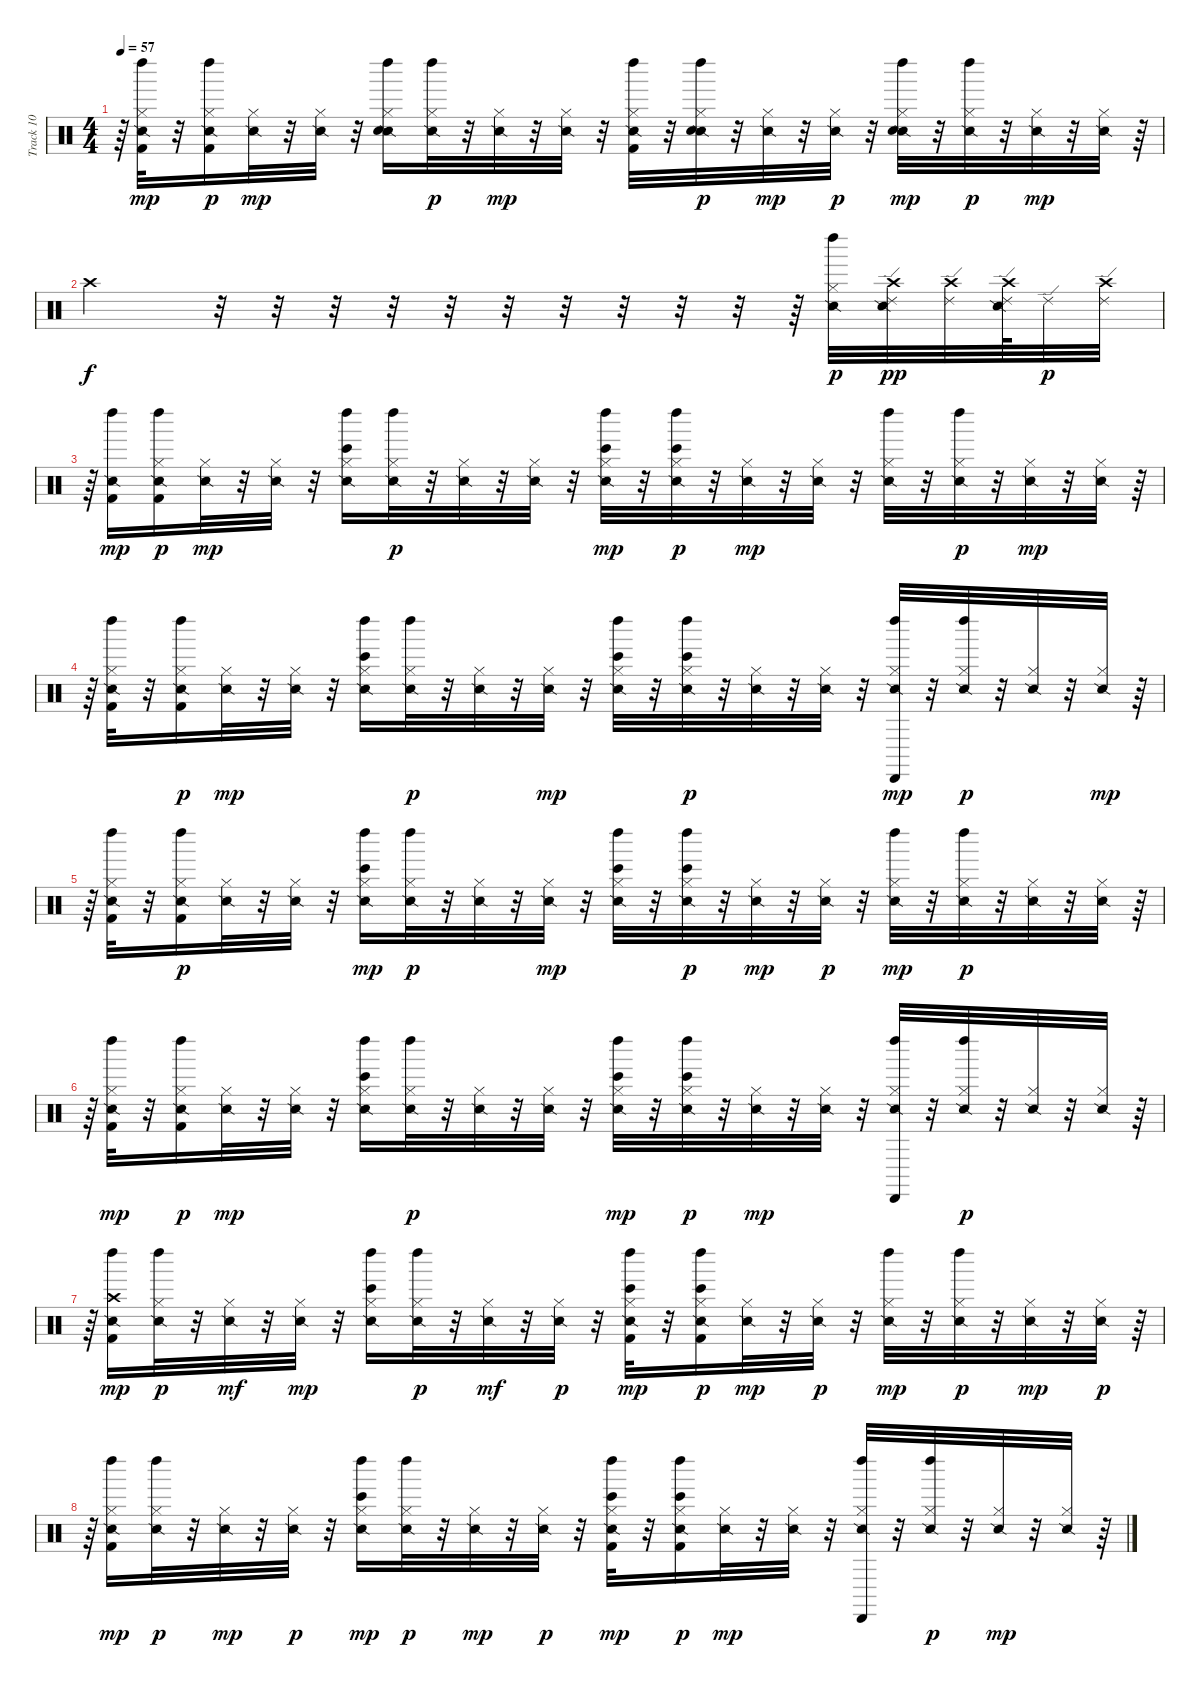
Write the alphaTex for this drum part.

\track ("Track 10" "Track 10") {instrument percussion}
\staff {score}
\articulation defaults
\ts (4 4)
\tempo 57
\clef neutral
\ks c
r.64{dy mp} ("Snare (side stick) 2" "Kick (hit) 2" "Hi-Hat (closed)" "Left Maraca (hit)").32 r.32 ("Snare (side stick) 2" "Kick (hit) 2" "Hi-Hat (closed)" "Left Maraca (hit)").16{dy p} ("Snare (side stick) 2" "Hi-Hat (closed)").32{dy mp} r.32 ("Snare (side stick) 2" "Hi-Hat (closed)").32 r.32 ("Snare (side stick) 2" "Hi-Hat (closed)" "Left Maraca (hit)" "Snare (hit) 2").16 ("Snare (side stick) 2" "Hi-Hat (closed)" "Left Maraca (hit)").32{dy p} r.32 ("Snare (side stick) 2" "Hi-Hat (closed)").32{dy mp} r.32 ("Snare (side stick) 2" "Hi-Hat (closed)").32 r.32 ("Snare (side stick) 2" "Hi-Hat (closed)" "Left Maraca (hit)" "Kick (hit) 2").32 r.32 ("Snare (side stick) 2" "Hi-Hat (closed)" "Left Maraca (hit)" "Snare (hit) 2").32{dy p} r.32 ("Snare (side stick) 2" "Hi-Hat (closed)").32{dy mp} r.32 ("Snare (side stick) 2" "Hi-Hat (closed)").32{dy p} r.32 ("Snare (side stick) 2" "Hi-Hat (closed)" "Left Maraca (hit)" "Snare (hit) 2").32{dy mp} r.32 ("Snare (side stick) 2" "Hi-Hat (closed)" "Left Maraca (hit)").32{dy p} r.32 ("Snare (side stick) 2" "Hi-Hat (closed)").32{dy mp} r.32 ("Snare (side stick) 2" "Hi-Hat (closed)").32 r.64 |
"Crash high (hit)".2{dy f} r.32 r.32 r.32 r.32 r.32 r.32 r.32 r.32 r.32 r.32 r.64 ("Snare (side stick) 2" "Hi-Hat (closed)" "Left Maraca (hit)").32{dy p} ("Ride (edge) 2" "Crash high (hit)" "Snare (side stick) 2").32{dy pp} ("Ride (edge) 2" "Crash high (hit)").32 ("Ride (edge) 2" "Crash high (hit)" "Snare (side stick) 2").64 "Ride (edge) 2".32{dy p} ("Crash high (hit)" "Ride (edge) 2").32 |
r.64 ("Snare (side stick) 2" "Kick (hit) 2" "Left Maraca (hit)").16{dy mp} ("Snare (side stick) 2" "Kick (hit) 2" "Hi-Hat (closed)" "Left Maraca (hit)").16{dy p} ("Snare (side stick) 2" "Hi-Hat (closed)").32{dy mp} r.32 ("Snare (side stick) 2" "Hi-Hat (closed)").32 r.32 ("Bongo High (hit)" "Snare (side stick) 2" "Hi-Hat (closed)" "Left Maraca (hit)").16 ("Snare (side stick) 2" "Hi-Hat (closed)" "Left Maraca (hit)").32{dy p} r.32 ("Snare (side stick) 2" "Hi-Hat (closed)").32 r.32 ("Snare (side stick) 2" "Hi-Hat (closed)").32 r.32 ("Bongo High (hit)" "Snare (side stick) 2" "Hi-Hat (closed)" "Left Maraca (hit)").32{dy mp} r.32 ("Bongo High (hit)" "Snare (side stick) 2" "Hi-Hat (closed)" "Left Maraca (hit)").32{dy p} r.32 ("Snare (side stick) 2" "Hi-Hat (closed)").32{dy mp} r.32 ("Snare (side stick) 2" "Hi-Hat (closed)").32 r.32 ("Snare (side stick) 2" "Hi-Hat (closed)" "Left Maraca (hit)").32 r.32 ("Snare (side stick) 2" "Hi-Hat (closed)" "Left Maraca (hit)").32{dy p} r.32 ("Snare (side stick) 2" "Hi-Hat (closed)").32{dy mp} r.32 ("Snare (side stick) 2" "Hi-Hat (closed)").32 r.64 |
r.64 ("Snare (side stick) 2" "Kick (hit) 2" "Hi-Hat (closed)" "Left Maraca (hit)").32 r.32 ("Snare (side stick) 2" "Kick (hit) 2" "Hi-Hat (closed)" "Left Maraca (hit)").16{dy p} ("Snare (side stick) 2" "Hi-Hat (closed)").32{dy mp} r.32 ("Snare (side stick) 2" "Hi-Hat (closed)").32 r.32 ("Bongo High (hit)" "Snare (side stick) 2" "Hi-Hat (closed)" "Left Maraca (hit)").16 ("Snare (side stick) 2" "Hi-Hat (closed)" "Left Maraca (hit)").32{dy p} r.32 ("Snare (side stick) 2" "Hi-Hat (closed)").32 r.32 ("Snare (side stick) 2" "Hi-Hat (closed)").32{dy mp} r.32 ("Bongo High (hit)" "Snare (side stick) 2" "Hi-Hat (closed)" "Left Maraca (hit)").32 r.32 ("Bongo High (hit)" "Snare (side stick) 2" "Hi-Hat (closed)" "Left Maraca (hit)").32{dy p} r.32 ("Snare (side stick) 2" "Hi-Hat (closed)").32 r.32 ("Snare (side stick) 2" "Hi-Hat (closed)").32 r.32 ("Snare (side stick) 2" "Hi-Hat (closed)" "Left Maraca (hit)" "Cabasa (hit)").32{dy mp} r.32 ("Snare (side stick) 2" "Hi-Hat (closed)" "Left Maraca (hit)").32{dy p} r.32 ("Snare (side stick) 2" "Hi-Hat (closed)").32 r.32 ("Snare (side stick) 2" "Hi-Hat (closed)").32{dy mp} r.64 |
r.64 ("Snare (side stick) 2" "Kick (hit) 2" "Hi-Hat (closed)" "Left Maraca (hit)").32 r.32 ("Snare (side stick) 2" "Kick (hit) 2" "Hi-Hat (closed)" "Left Maraca (hit)").16{dy p} ("Snare (side stick) 2" "Hi-Hat (closed)").32 r.32 ("Snare (side stick) 2" "Hi-Hat (closed)").32 r.32 ("Bongo High (hit)" "Snare (side stick) 2" "Hi-Hat (closed)" "Left Maraca (hit)").16{dy mp} ("Snare (side stick) 2" "Hi-Hat (closed)" "Left Maraca (hit)").32{dy p} r.32 ("Snare (side stick) 2" "Hi-Hat (closed)").32 r.32 ("Snare (side stick) 2" "Hi-Hat (closed)").32{dy mp} r.32 ("Bongo High (hit)" "Snare (side stick) 2" "Hi-Hat (closed)" "Left Maraca (hit)").32 r.32 ("Bongo High (hit)" "Snare (side stick) 2" "Hi-Hat (closed)" "Left Maraca (hit)").32{dy p} r.32 ("Snare (side stick) 2" "Hi-Hat (closed)").32{dy mp} r.32 ("Snare (side stick) 2" "Hi-Hat (closed)").32{dy p} r.32 ("Snare (side stick) 2" "Hi-Hat (closed)" "Left Maraca (hit)").32{dy mp} r.32 ("Snare (side stick) 2" "Hi-Hat (closed)" "Left Maraca (hit)").32{dy p} r.32 ("Snare (side stick) 2" "Hi-Hat (closed)").32 r.32 ("Snare (side stick) 2" "Hi-Hat (closed)").32 r.64 |
r.64 ("Snare (side stick) 2" "Kick (hit) 2" "Hi-Hat (closed)" "Left Maraca (hit)").32{dy mp} r.32 ("Snare (side stick) 2" "Kick (hit) 2" "Hi-Hat (closed)" "Left Maraca (hit)").16{dy p} ("Snare (side stick) 2" "Hi-Hat (closed)").32{dy mp} r.32 ("Snare (side stick) 2" "Hi-Hat (closed)").32 r.32 ("Bongo High (hit)" "Snare (side stick) 2" "Hi-Hat (closed)" "Left Maraca (hit)").16 ("Snare (side stick) 2" "Hi-Hat (closed)" "Left Maraca (hit)").32{dy p} r.32 ("Snare (side stick) 2" "Hi-Hat (closed)").32 r.32 ("Snare (side stick) 2" "Hi-Hat (closed)").32 r.32 ("Bongo High (hit)" "Snare (side stick) 2" "Hi-Hat (closed)" "Left Maraca (hit)").32{dy mp} r.32 ("Bongo High (hit)" "Snare (side stick) 2" "Hi-Hat (closed)" "Left Maraca (hit)").32{dy p} r.32 ("Snare (side stick) 2" "Hi-Hat (closed)").32{dy mp} r.32 ("Snare (side stick) 2" "Hi-Hat (closed)").32 r.32 ("Snare (side stick) 2" "Hi-Hat (closed)" "Left Maraca (hit)" "Cabasa (hit)").32 r.32 ("Snare (side stick) 2" "Hi-Hat (closed)" "Left Maraca (hit)").32{dy p} r.32 ("Snare (side stick) 2" "Hi-Hat (closed)").32 r.32 ("Snare (side stick) 2" "Hi-Hat (closed)").32 r.64 |
r.64 ("Snare (side stick) 2" "Kick (hit) 2" "Crash high (hit)" "Left Maraca (hit)").16{dy mp} ("Snare (side stick) 2" "Hi-Hat (closed)" "Left Maraca (hit)").32{dy p} r.32 ("Snare (side stick) 2" "Hi-Hat (closed)").32{dy mf} r.32 ("Snare (side stick) 2" "Hi-Hat (closed)").32{dy mp} r.32 ("Bongo High (hit)" "Snare (side stick) 2" "Hi-Hat (closed)" "Left Maraca (hit)").16 ("Snare (side stick) 2" "Hi-Hat (closed)" "Left Maraca (hit)").32{dy p} r.32 ("Snare (side stick) 2" "Hi-Hat (closed)").32{dy mf} r.32 ("Snare (side stick) 2" "Hi-Hat (closed)").32{dy p} r.32 ("Bongo High (hit)" "Snare (side stick) 2" "Kick (hit) 2" "Hi-Hat (closed)" "Left Maraca (hit)").32{dy mp} r.32 ("Bongo High (hit)" "Snare (side stick) 2" "Kick (hit) 2" "Hi-Hat (closed)" "Left Maraca (hit)").16{dy p} ("Snare (side stick) 2" "Hi-Hat (closed)").32{dy mp} r.32 ("Snare (side stick) 2" "Hi-Hat (closed)").32{dy p} r.32 ("Snare (side stick) 2" "Hi-Hat (closed)" "Left Maraca (hit)").32{dy mp} r.32 ("Snare (side stick) 2" "Hi-Hat (closed)" "Left Maraca (hit)").32{dy p} r.32 ("Snare (side stick) 2" "Hi-Hat (closed)").32{dy mp} r.32 ("Snare (side stick) 2" "Hi-Hat (closed)").32{dy p} r.64 |
r.64 ("Snare (side stick) 2" "Kick (hit) 2" "Hi-Hat (closed)" "Left Maraca (hit)").16{dy mp} ("Snare (side stick) 2" "Hi-Hat (closed)" "Left Maraca (hit)").32{dy p} r.32 ("Snare (side stick) 2" "Hi-Hat (closed)").32{dy mp} r.32 ("Snare (side stick) 2" "Hi-Hat (closed)").32{dy p} r.32 ("Bongo High (hit)" "Snare (side stick) 2" "Hi-Hat (closed)" "Left Maraca (hit)").16{dy mp} ("Snare (side stick) 2" "Hi-Hat (closed)" "Left Maraca (hit)").32{dy p} r.32 ("Snare (side stick) 2" "Hi-Hat (closed)").32{dy mp} r.32 ("Snare (side stick) 2" "Hi-Hat (closed)").32{dy p} r.32 ("Bongo High (hit)" "Snare (side stick) 2" "Kick (hit) 2" "Hi-Hat (closed)" "Left Maraca (hit)").32{dy mp} r.32 ("Bongo High (hit)" "Snare (side stick) 2" "Kick (hit) 2" "Hi-Hat (closed)" "Left Maraca (hit)").16{dy p} ("Snare (side stick) 2" "Hi-Hat (closed)").32{dy mp} r.32 ("Snare (side stick) 2" "Hi-Hat (closed)").32 r.32 ("Snare (side stick) 2" "Hi-Hat (closed)" "Left Maraca (hit)" "Cabasa (hit)").32 r.32 ("Snare (side stick) 2" "Hi-Hat (closed)" "Left Maraca (hit)").32{dy p} r.32 ("Snare (side stick) 2" "Hi-Hat (closed)").32{dy mp} r.32 ("Snare (side stick) 2" "Hi-Hat (closed)").32 r.64
